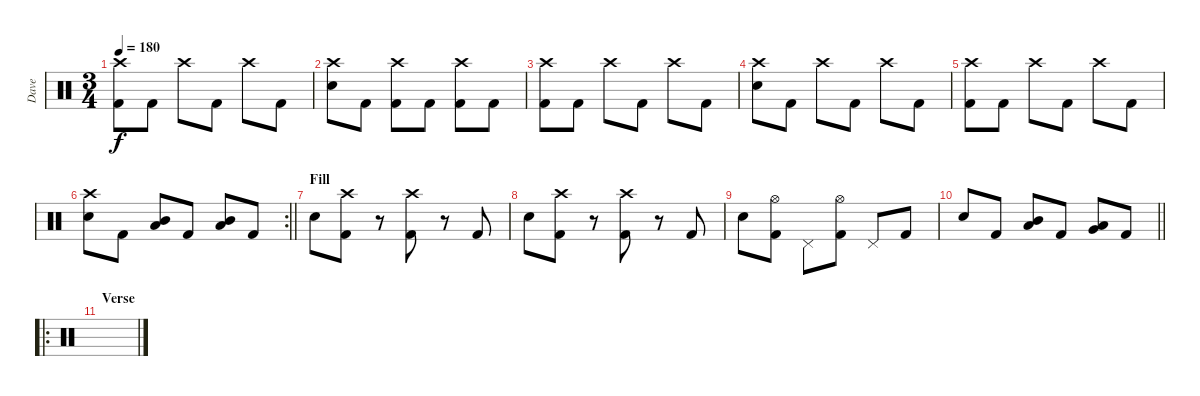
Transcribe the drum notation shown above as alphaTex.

\track ("Dave" "Dave") {instrument percussion}
\staff {score}
\articulation defaults
\ts (3 4)
\tempo 180
\clef neutral
\ks c
("Kick (hit) 2" "Crash high (hit)").8{dy f} "Kick (hit) 2".8 "Crash high (hit)".8 "Kick (hit) 2".8 "Crash high (hit)".8 "Kick (hit) 2".8 |
("Electric Snare (hit)" "Crash high (hit)").8 "Kick (hit) 2".8 ("Kick (hit) 2" "Crash high (hit)").8 "Kick (hit) 2".8 ("Kick (hit) 2" "Crash high (hit)").8 "Kick (hit) 2".8 |
("Kick (hit) 2" "Crash high (hit)").8 "Kick (hit) 2".8 "Crash high (hit)".8 "Kick (hit) 2".8 "Crash high (hit)".8 "Kick (hit) 2".8 |
("Electric Snare (hit)" "Crash high (hit)").8 "Kick (hit) 2".8 "Crash high (hit)".8 "Kick (hit) 2".8 "Crash high (hit)".8 "Kick (hit) 2".8 |
("Kick (hit) 2" "Crash high (hit)").8 "Kick (hit) 2".8 "Crash high (hit)".8 "Kick (hit) 2".8 "Crash high (hit)".8 "Kick (hit) 2".8 |
\rc 2
\barLineRight lightlight
("Electric Snare (hit)" "Crash high (hit)").8 "Kick (hit) 2".8 ("Mid Tom (hit)" "Low Tom (hit)").8 "Kick (hit) 2".8 ("Mid Tom (hit)" "Low Tom (hit)").8 "Kick (hit) 2".8 |
\section ("" "Fill")
"Electric Snare (hit)".8 ("Kick (hit) 2" "Crash high (hit)").8 r.8 ("Kick (hit) 2" "Crash high (hit)").8 r.8 "Kick (hit) 2".8 |
"Electric Snare (hit)".8 ("Kick (hit) 2" "Crash high (hit)").8 r.8 ("Kick (hit) 2" "Crash high (hit)").8 r.8 "Kick (hit) 2".8 |
"Electric Snare (hit)".8 ("Kick (hit) 2" "Hi-Hat (open)").8 "Pedal Hi-Hat (hit)".8 ("Kick (hit) 2" "Hi-Hat (open)").8 "Pedal Hi-Hat (hit)".8 "Kick (hit) 2".8 |
\barLineRight lightlight "Electric Snare (hit)".8 "Kick (hit) 2".8
("Mid Tom (hit)" "Low Tom (hit)").8 "Kick (hit) 2".8 ("Low Tom (hit)" "Very Low Tom (hit)").8 "Kick (hit) 2".8 |
\ro
\section ("" "Verse")
